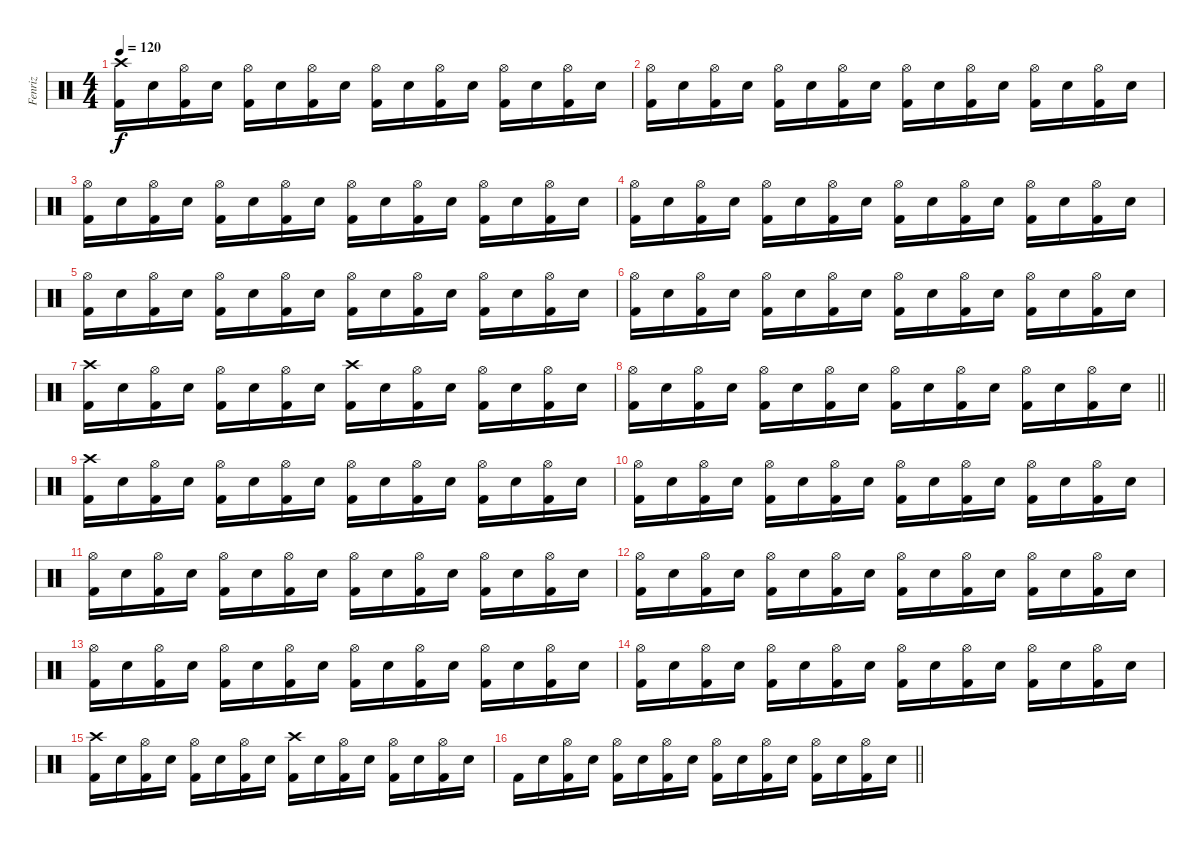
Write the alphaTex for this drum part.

\track ("Fenriz" "Fenriz") {instrument percussion}
\staff {score}
\articulation defaults
\ts (4 4)
\tempo 120
\clef neutral
\ks c
("Kick (hit) 2" "Crash high (hit)").16{dy f} "Electric Snare (hit)".16 ("Kick (hit) 2" "Hi-Hat (open)").16 "Electric Snare (hit)".16 ("Kick (hit) 2" "Hi-Hat (open)").16 "Electric Snare (hit)".16 ("Kick (hit) 2" "Hi-Hat (open)").16 "Electric Snare (hit)".16 ("Kick (hit) 2" "Hi-Hat (open)").16 "Electric Snare (hit)".16 ("Kick (hit) 2" "Hi-Hat (open)").16 "Electric Snare (hit)".16 ("Kick (hit) 2" "Hi-Hat (open)").16 "Electric Snare (hit)".16 ("Kick (hit) 2" "Hi-Hat (open)").16 "Electric Snare (hit)".16 |
("Kick (hit) 2" "Hi-Hat (open)").16 "Electric Snare (hit)".16 ("Kick (hit) 2" "Hi-Hat (open)").16 "Electric Snare (hit)".16 ("Kick (hit) 2" "Hi-Hat (open)").16 "Electric Snare (hit)".16 ("Kick (hit) 2" "Hi-Hat (open)").16 "Electric Snare (hit)".16 ("Kick (hit) 2" "Hi-Hat (open)").16 "Electric Snare (hit)".16 ("Kick (hit) 2" "Hi-Hat (open)").16 "Electric Snare (hit)".16 ("Kick (hit) 2" "Hi-Hat (open)").16 "Electric Snare (hit)".16 ("Kick (hit) 2" "Hi-Hat (open)").16 "Electric Snare (hit)".16 |
("Kick (hit) 2" "Hi-Hat (open)").16 "Electric Snare (hit)".16 ("Kick (hit) 2" "Hi-Hat (open)").16 "Electric Snare (hit)".16 ("Kick (hit) 2" "Hi-Hat (open)").16 "Electric Snare (hit)".16 ("Kick (hit) 2" "Hi-Hat (open)").16 "Electric Snare (hit)".16 ("Kick (hit) 2" "Hi-Hat (open)").16 "Electric Snare (hit)".16 ("Kick (hit) 2" "Hi-Hat (open)").16 "Electric Snare (hit)".16 ("Kick (hit) 2" "Hi-Hat (open)").16 "Electric Snare (hit)".16 ("Kick (hit) 2" "Hi-Hat (open)").16 "Electric Snare (hit)".16 |
("Kick (hit) 2" "Hi-Hat (open)").16 "Electric Snare (hit)".16 ("Kick (hit) 2" "Hi-Hat (open)").16 "Electric Snare (hit)".16 ("Kick (hit) 2" "Hi-Hat (open)").16 "Electric Snare (hit)".16 ("Kick (hit) 2" "Hi-Hat (open)").16 "Electric Snare (hit)".16 ("Kick (hit) 2" "Hi-Hat (open)").16 "Electric Snare (hit)".16 ("Kick (hit) 2" "Hi-Hat (open)").16 "Electric Snare (hit)".16 ("Kick (hit) 2" "Hi-Hat (open)").16 "Electric Snare (hit)".16 ("Kick (hit) 2" "Hi-Hat (open)").16 "Electric Snare (hit)".16 |
("Kick (hit) 2" "Hi-Hat (open)").16 "Electric Snare (hit)".16 ("Kick (hit) 2" "Hi-Hat (open)").16 "Electric Snare (hit)".16 ("Kick (hit) 2" "Hi-Hat (open)").16 "Electric Snare (hit)".16 ("Kick (hit) 2" "Hi-Hat (open)").16 "Electric Snare (hit)".16 ("Kick (hit) 2" "Hi-Hat (open)").16 "Electric Snare (hit)".16 ("Kick (hit) 2" "Hi-Hat (open)").16 "Electric Snare (hit)".16 ("Kick (hit) 2" "Hi-Hat (open)").16 "Electric Snare (hit)".16 ("Kick (hit) 2" "Hi-Hat (open)").16 "Electric Snare (hit)".16 |
("Kick (hit) 2" "Hi-Hat (open)").16 "Electric Snare (hit)".16 ("Kick (hit) 2" "Hi-Hat (open)").16 "Electric Snare (hit)".16 ("Kick (hit) 2" "Hi-Hat (open)").16 "Electric Snare (hit)".16 ("Kick (hit) 2" "Hi-Hat (open)").16 "Electric Snare (hit)".16 ("Kick (hit) 2" "Hi-Hat (open)").16 "Electric Snare (hit)".16 ("Kick (hit) 2" "Hi-Hat (open)").16 "Electric Snare (hit)".16 ("Kick (hit) 2" "Hi-Hat (open)").16 "Electric Snare (hit)".16 ("Kick (hit) 2" "Hi-Hat (open)").16 "Electric Snare (hit)".16 |
("Kick (hit) 2" "Crash high (hit)").16 "Electric Snare (hit)".16 ("Kick (hit) 2" "Hi-Hat (open)").16 "Electric Snare (hit)".16 ("Kick (hit) 2" "Hi-Hat (open)").16 "Electric Snare (hit)".16 ("Kick (hit) 2" "Hi-Hat (open)").16 "Electric Snare (hit)".16 ("Kick (hit) 2" "Crash high (hit)").16 "Electric Snare (hit)".16 ("Kick (hit) 2" "Hi-Hat (open)").16 "Electric Snare (hit)".16 ("Kick (hit) 2" "Hi-Hat (open)").16 "Electric Snare (hit)".16 ("Kick (hit) 2" "Hi-Hat (open)").16 "Electric Snare (hit)".16 |
\barLineRight lightlight
("Kick (hit) 2" "Hi-Hat (open)").16 "Electric Snare (hit)".16 ("Kick (hit) 2" "Hi-Hat (open)").16 "Electric Snare (hit)".16 ("Kick (hit) 2" "Hi-Hat (open)").16 "Electric Snare (hit)".16 ("Kick (hit) 2" "Hi-Hat (open)").16 "Electric Snare (hit)".16 ("Kick (hit) 2" "Hi-Hat (open)").16 "Electric Snare (hit)".16 ("Kick (hit) 2" "Hi-Hat (open)").16 "Electric Snare (hit)".16 ("Kick (hit) 2" "Hi-Hat (open)").16 "Electric Snare (hit)".16 ("Kick (hit) 2" "Hi-Hat (open)").16 "Electric Snare (hit)".16 |
("Kick (hit) 2" "Crash high (hit)").16 "Electric Snare (hit)".16 ("Kick (hit) 2" "Hi-Hat (open)").16 "Electric Snare (hit)".16 ("Kick (hit) 2" "Hi-Hat (open)").16 "Electric Snare (hit)".16 ("Kick (hit) 2" "Hi-Hat (open)").16 "Electric Snare (hit)".16 ("Kick (hit) 2" "Hi-Hat (open)").16 "Electric Snare (hit)".16 ("Kick (hit) 2" "Hi-Hat (open)").16 "Electric Snare (hit)".16 ("Kick (hit) 2" "Hi-Hat (open)").16 "Electric Snare (hit)".16 ("Kick (hit) 2" "Hi-Hat (open)").16 "Electric Snare (hit)".16 |
("Kick (hit) 2" "Hi-Hat (open)").16 "Electric Snare (hit)".16 ("Kick (hit) 2" "Hi-Hat (open)").16 "Electric Snare (hit)".16 ("Kick (hit) 2" "Hi-Hat (open)").16 "Electric Snare (hit)".16 ("Kick (hit) 2" "Hi-Hat (open)").16 "Electric Snare (hit)".16 ("Kick (hit) 2" "Hi-Hat (open)").16 "Electric Snare (hit)".16 ("Kick (hit) 2" "Hi-Hat (open)").16 "Electric Snare (hit)".16 ("Kick (hit) 2" "Hi-Hat (open)").16 "Electric Snare (hit)".16 ("Kick (hit) 2" "Hi-Hat (open)").16 "Electric Snare (hit)".16 |
("Kick (hit) 2" "Hi-Hat (open)").16 "Electric Snare (hit)".16 ("Kick (hit) 2" "Hi-Hat (open)").16 "Electric Snare (hit)".16 ("Kick (hit) 2" "Hi-Hat (open)").16 "Electric Snare (hit)".16 ("Kick (hit) 2" "Hi-Hat (open)").16 "Electric Snare (hit)".16 ("Kick (hit) 2" "Hi-Hat (open)").16 "Electric Snare (hit)".16 ("Kick (hit) 2" "Hi-Hat (open)").16 "Electric Snare (hit)".16 ("Kick (hit) 2" "Hi-Hat (open)").16 "Electric Snare (hit)".16 ("Kick (hit) 2" "Hi-Hat (open)").16 "Electric Snare (hit)".16 |
("Kick (hit) 2" "Hi-Hat (open)").16 "Electric Snare (hit)".16 ("Kick (hit) 2" "Hi-Hat (open)").16 "Electric Snare (hit)".16 ("Kick (hit) 2" "Hi-Hat (open)").16 "Electric Snare (hit)".16 ("Kick (hit) 2" "Hi-Hat (open)").16 "Electric Snare (hit)".16 ("Kick (hit) 2" "Hi-Hat (open)").16 "Electric Snare (hit)".16 ("Kick (hit) 2" "Hi-Hat (open)").16 "Electric Snare (hit)".16 ("Kick (hit) 2" "Hi-Hat (open)").16 "Electric Snare (hit)".16 ("Kick (hit) 2" "Hi-Hat (open)").16 "Electric Snare (hit)".16 |
("Kick (hit) 2" "Hi-Hat (open)").16 "Electric Snare (hit)".16 ("Kick (hit) 2" "Hi-Hat (open)").16 "Electric Snare (hit)".16 ("Kick (hit) 2" "Hi-Hat (open)").16 "Electric Snare (hit)".16 ("Kick (hit) 2" "Hi-Hat (open)").16 "Electric Snare (hit)".16 ("Kick (hit) 2" "Hi-Hat (open)").16 "Electric Snare (hit)".16 ("Kick (hit) 2" "Hi-Hat (open)").16 "Electric Snare (hit)".16 ("Kick (hit) 2" "Hi-Hat (open)").16 "Electric Snare (hit)".16 ("Kick (hit) 2" "Hi-Hat (open)").16 "Electric Snare (hit)".16 |
("Kick (hit) 2" "Hi-Hat (open)").16 "Electric Snare (hit)".16 ("Kick (hit) 2" "Hi-Hat (open)").16 "Electric Snare (hit)".16 ("Kick (hit) 2" "Hi-Hat (open)").16 "Electric Snare (hit)".16 ("Kick (hit) 2" "Hi-Hat (open)").16 "Electric Snare (hit)".16 ("Kick (hit) 2" "Hi-Hat (open)").16 "Electric Snare (hit)".16 ("Kick (hit) 2" "Hi-Hat (open)").16 "Electric Snare (hit)".16 ("Kick (hit) 2" "Hi-Hat (open)").16 "Electric Snare (hit)".16 ("Kick (hit) 2" "Hi-Hat (open)").16 "Electric Snare (hit)".16 |
("Kick (hit) 2" "Crash high (hit)").16 "Electric Snare (hit)".16 ("Kick (hit) 2" "Hi-Hat (open)").16 "Electric Snare (hit)".16 ("Kick (hit) 2" "Hi-Hat (open)").16 "Electric Snare (hit)".16 ("Kick (hit) 2" "Hi-Hat (open)").16 "Electric Snare (hit)".16 ("Kick (hit) 2" "Crash high (hit)").16 "Electric Snare (hit)".16 ("Kick (hit) 2" "Hi-Hat (open)").16 "Electric Snare (hit)".16 ("Kick (hit) 2" "Hi-Hat (open)").16 "Electric Snare (hit)".16 ("Kick (hit) 2" "Hi-Hat (open)").16 "Electric Snare (hit)".16 |
\barLineRight lightlight "Kick (hit) 2".16 "Electric Snare (hit)".16
("Kick (hit) 2" "Hi-Hat (open)").16 "Electric Snare (hit)".16 ("Kick (hit) 2" "Hi-Hat (open)").16 "Electric Snare (hit)".16 ("Kick (hit) 2" "Hi-Hat (open)").16 "Electric Snare (hit)".16 ("Kick (hit) 2" "Hi-Hat (open)").16 "Electric Snare (hit)".16 ("Kick (hit) 2" "Hi-Hat (open)").16 "Electric Snare (hit)".16 ("Kick (hit) 2" "Hi-Hat (open)").16 "Electric Snare (hit)".16 ("Kick (hit) 2" "Hi-Hat (open)").16 "Electric Snare (hit)".16
